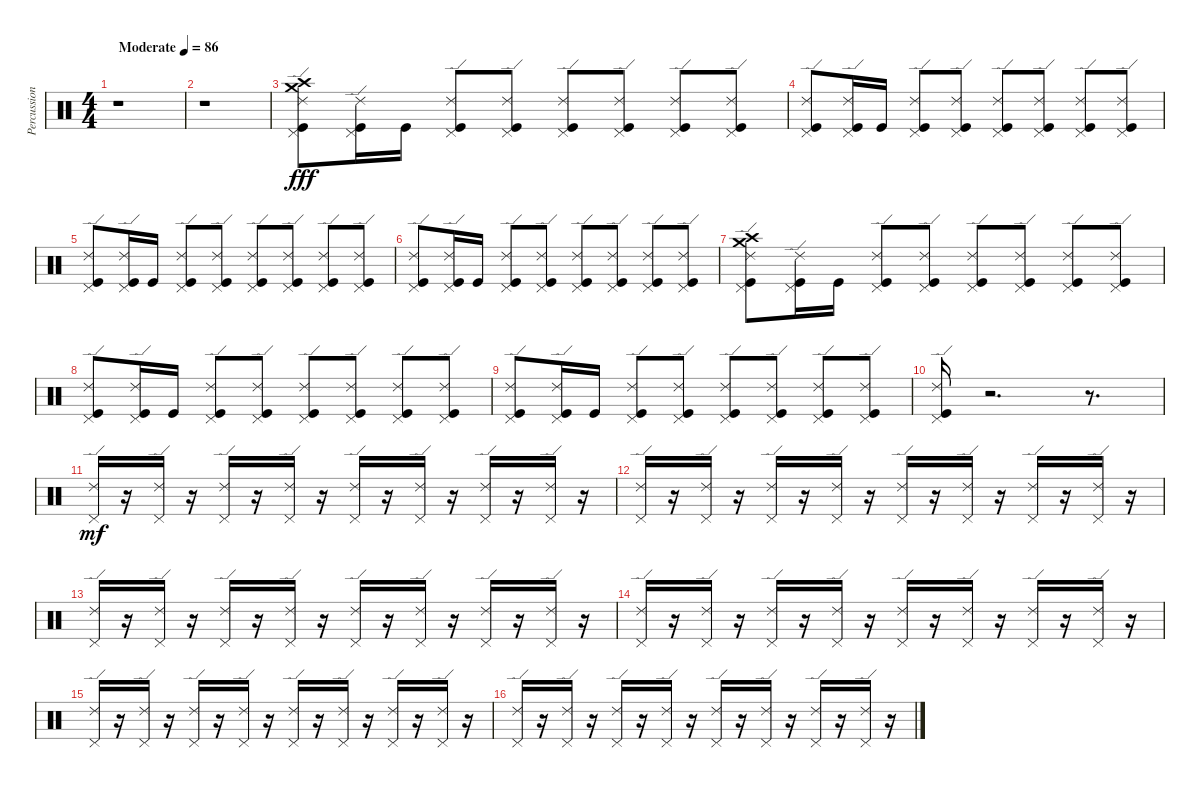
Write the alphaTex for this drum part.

\track ("Percussion" "Percussion") {instrument percussion}
\staff {score}
\articulation defaults
\ts (4 4)
\tempo (86 "Moderate")
\clef neutral
\ks c
r.1{dy fff} |
r.1 |
("Kick (hit)" "Ride (edge) 2" "Pedal Hi-Hat (hit)" "Crash high (hit)" "Crash medium (hit)").8 ("Pedal Hi-Hat (hit)" "Ride (edge) 2" "Kick (hit)").16 "Kick (hit)".16 ("Pedal Hi-Hat (hit)" "Ride (edge) 2" "Kick (hit)").8 ("Ride (edge) 2" "Pedal Hi-Hat (hit)" "Kick (hit)").8 ("Pedal Hi-Hat (hit)" "Ride (edge) 2" "Kick (hit)").8 ("Pedal Hi-Hat (hit)" "Ride (edge) 2" "Kick (hit)").8 ("Pedal Hi-Hat (hit)" "Ride (edge) 2" "Kick (hit)").8 ("Pedal Hi-Hat (hit)" "Ride (edge) 2" "Kick (hit)").8 |
("Pedal Hi-Hat (hit)" "Ride (edge) 2" "Kick (hit)").8 ("Pedal Hi-Hat (hit)" "Ride (edge) 2" "Kick (hit)").16 "Kick (hit)".16 ("Pedal Hi-Hat (hit)" "Ride (edge) 2" "Kick (hit)").8 ("Pedal Hi-Hat (hit)" "Ride (edge) 2" "Kick (hit)").8 ("Pedal Hi-Hat (hit)" "Ride (edge) 2" "Kick (hit)").8 ("Pedal Hi-Hat (hit)" "Ride (edge) 2" "Kick (hit)").8 ("Pedal Hi-Hat (hit)" "Ride (edge) 2" "Kick (hit)").8 ("Pedal Hi-Hat (hit)" "Ride (edge) 2" "Kick (hit)").8 |
("Pedal Hi-Hat (hit)" "Ride (edge) 2" "Kick (hit)").8 ("Pedal Hi-Hat (hit)" "Ride (edge) 2" "Kick (hit)").16 "Kick (hit)".16 ("Pedal Hi-Hat (hit)" "Ride (edge) 2" "Kick (hit)").8 ("Pedal Hi-Hat (hit)" "Ride (edge) 2" "Kick (hit)").8 ("Pedal Hi-Hat (hit)" "Ride (edge) 2" "Kick (hit)").8 ("Pedal Hi-Hat (hit)" "Ride (edge) 2" "Kick (hit)").8 ("Pedal Hi-Hat (hit)" "Ride (edge) 2" "Kick (hit)").8 ("Pedal Hi-Hat (hit)" "Ride (edge) 2" "Kick (hit)").8 |
("Pedal Hi-Hat (hit)" "Ride (edge) 2" "Kick (hit)").8 ("Pedal Hi-Hat (hit)" "Ride (edge) 2" "Kick (hit)").16 "Kick (hit)".16 ("Pedal Hi-Hat (hit)" "Ride (edge) 2" "Kick (hit)").8 ("Pedal Hi-Hat (hit)" "Ride (edge) 2" "Kick (hit)").8 ("Pedal Hi-Hat (hit)" "Ride (edge) 2" "Kick (hit)").8 ("Pedal Hi-Hat (hit)" "Ride (edge) 2" "Kick (hit)").8 ("Pedal Hi-Hat (hit)" "Ride (edge) 2" "Kick (hit)").8 ("Pedal Hi-Hat (hit)" "Ride (edge) 2" "Kick (hit)").8 |
("Crash medium (hit)" "Crash high (hit)" "Pedal Hi-Hat (hit)" "Ride (edge) 2" "Kick (hit)").8 ("Pedal Hi-Hat (hit)" "Ride (edge) 2" "Kick (hit)").16 "Kick (hit)".16 ("Pedal Hi-Hat (hit)" "Ride (edge) 2" "Kick (hit)").8 ("Pedal Hi-Hat (hit)" "Ride (edge) 2" "Kick (hit)").8 ("Pedal Hi-Hat (hit)" "Ride (edge) 2" "Kick (hit)").8 ("Pedal Hi-Hat (hit)" "Ride (edge) 2" "Kick (hit)").8 ("Pedal Hi-Hat (hit)" "Ride (edge) 2" "Kick (hit)").8 ("Pedal Hi-Hat (hit)" "Ride (edge) 2" "Kick (hit)").8 |
("Pedal Hi-Hat (hit)" "Ride (edge) 2" "Kick (hit)").8 ("Pedal Hi-Hat (hit)" "Ride (edge) 2" "Kick (hit)").16 "Kick (hit)".16 ("Pedal Hi-Hat (hit)" "Ride (edge) 2" "Kick (hit)").8 ("Pedal Hi-Hat (hit)" "Ride (edge) 2" "Kick (hit)").8 ("Pedal Hi-Hat (hit)" "Ride (edge) 2" "Kick (hit)").8 ("Pedal Hi-Hat (hit)" "Ride (edge) 2" "Kick (hit)").8 ("Pedal Hi-Hat (hit)" "Ride (edge) 2" "Kick (hit)").8 ("Pedal Hi-Hat (hit)" "Ride (edge) 2" "Kick (hit)").8 |
("Pedal Hi-Hat (hit)" "Ride (edge) 2" "Kick (hit)").8 ("Pedal Hi-Hat (hit)" "Ride (edge) 2" "Kick (hit)").16 "Kick (hit)".16 ("Pedal Hi-Hat (hit)" "Ride (edge) 2" "Kick (hit)").8 ("Pedal Hi-Hat (hit)" "Ride (edge) 2" "Kick (hit)").8 ("Pedal Hi-Hat (hit)" "Ride (edge) 2" "Kick (hit)").8 ("Pedal Hi-Hat (hit)" "Ride (edge) 2" "Kick (hit)").8 ("Pedal Hi-Hat (hit)" "Ride (edge) 2" "Kick (hit)").8 ("Pedal Hi-Hat (hit)" "Ride (edge) 2" "Kick (hit)").8 |
("Pedal Hi-Hat (hit)" "Ride (edge) 2" "Kick (hit)").16 r.2{d} r.8{d} |
("Pedal Hi-Hat (hit)" "Ride (edge) 2").16{dy mf} r.16 ("Pedal Hi-Hat (hit)" "Ride (edge) 2").16 r.16 ("Pedal Hi-Hat (hit)" "Ride (edge) 2").16 r.16 ("Pedal Hi-Hat (hit)" "Ride (edge) 2").16 r.16 ("Pedal Hi-Hat (hit)" "Ride (edge) 2").16 r.16 ("Pedal Hi-Hat (hit)" "Ride (edge) 2").16 r.16 ("Pedal Hi-Hat (hit)" "Ride (edge) 2").16 r.16 ("Pedal Hi-Hat (hit)" "Ride (edge) 2").16 r.16 |
("Pedal Hi-Hat (hit)" "Ride (edge) 2").16 r.16 ("Pedal Hi-Hat (hit)" "Ride (edge) 2").16 r.16 ("Pedal Hi-Hat (hit)" "Ride (edge) 2").16 r.16 ("Pedal Hi-Hat (hit)" "Ride (edge) 2").16 r.16 ("Pedal Hi-Hat (hit)" "Ride (edge) 2").16 r.16 ("Pedal Hi-Hat (hit)" "Ride (edge) 2").16 r.16 ("Pedal Hi-Hat (hit)" "Ride (edge) 2").16 r.16 ("Pedal Hi-Hat (hit)" "Ride (edge) 2").16 r.16 |
("Pedal Hi-Hat (hit)" "Ride (edge) 2").16 r.16 ("Pedal Hi-Hat (hit)" "Ride (edge) 2").16 r.16 ("Pedal Hi-Hat (hit)" "Ride (edge) 2").16 r.16 ("Pedal Hi-Hat (hit)" "Ride (edge) 2").16 r.16 ("Pedal Hi-Hat (hit)" "Ride (edge) 2").16 r.16 ("Pedal Hi-Hat (hit)" "Ride (edge) 2").16 r.16 ("Pedal Hi-Hat (hit)" "Ride (edge) 2").16 r.16 ("Pedal Hi-Hat (hit)" "Ride (edge) 2").16 r.16 |
("Pedal Hi-Hat (hit)" "Ride (edge) 2").16 r.16 ("Pedal Hi-Hat (hit)" "Ride (edge) 2").16 r.16 ("Pedal Hi-Hat (hit)" "Ride (edge) 2").16 r.16 ("Pedal Hi-Hat (hit)" "Ride (edge) 2").16 r.16 ("Pedal Hi-Hat (hit)" "Ride (edge) 2").16 r.16 ("Pedal Hi-Hat (hit)" "Ride (edge) 2").16 r.16 ("Pedal Hi-Hat (hit)" "Ride (edge) 2").16 r.16 ("Pedal Hi-Hat (hit)" "Ride (edge) 2").16 r.16 |
("Pedal Hi-Hat (hit)" "Ride (edge) 2").16 r.16 ("Pedal Hi-Hat (hit)" "Ride (edge) 2").16 r.16 ("Pedal Hi-Hat (hit)" "Ride (edge) 2").16 r.16 ("Pedal Hi-Hat (hit)" "Ride (edge) 2").16 r.16 ("Pedal Hi-Hat (hit)" "Ride (edge) 2").16 r.16 ("Pedal Hi-Hat (hit)" "Ride (edge) 2").16 r.16 ("Pedal Hi-Hat (hit)" "Ride (edge) 2").16 r.16 ("Pedal Hi-Hat (hit)" "Ride (edge) 2").16 r.16 |
("Pedal Hi-Hat (hit)" "Ride (edge) 2").16 r.16 ("Pedal Hi-Hat (hit)" "Ride (edge) 2").16 r.16 ("Pedal Hi-Hat (hit)" "Ride (edge) 2").16 r.16 ("Pedal Hi-Hat (hit)" "Ride (edge) 2").16 r.16 ("Pedal Hi-Hat (hit)" "Ride (edge) 2").16 r.16 ("Pedal Hi-Hat (hit)" "Ride (edge) 2").16 r.16 ("Pedal Hi-Hat (hit)" "Ride (edge) 2").16 r.16 ("Pedal Hi-Hat (hit)" "Ride (edge) 2").16 r.16
